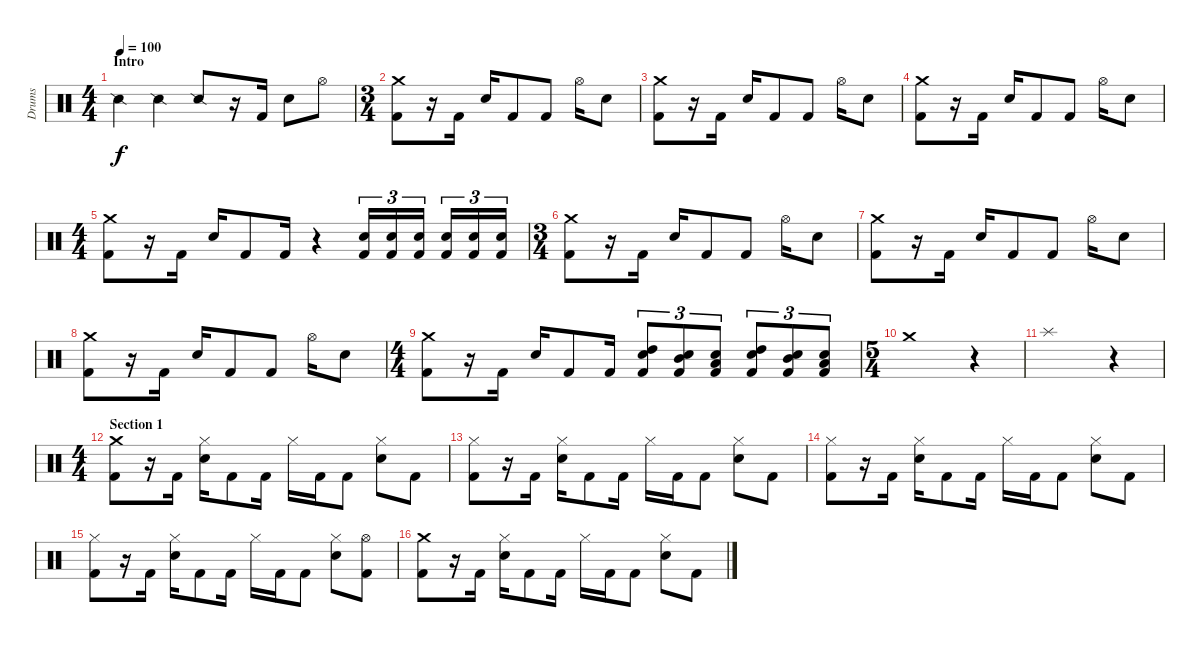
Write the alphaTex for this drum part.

\track ("Drums" "Drums") {instrument percussion}
\staff {score}
\articulation defaults
\ts (4 4)
\section ("" "Intro")
\tempo 100
\clef neutral
\ks c "Snare (side stick) 2".4{dy f} "Snare (side stick) 2".4 "Snare (side stick) 2".8
r.16 "Kick (hit) 2".16 "Snare (hit) 2".8 "Hi-Hat (open)".8 |
\ts (3 4)
("Crash medium (hit)" "Kick (hit) 2").8 r.16 "Kick (hit) 2".16 "Snare (hit) 2".16 "Kick (hit) 2".8 "Kick (hit) 2".8 "Hi-Hat (open)".16 "Snare (hit) 2".8 |
("Crash medium (hit)" "Kick (hit) 2").8 r.16 "Kick (hit) 2".16 "Snare (hit) 2".16 "Kick (hit) 2".8 "Kick (hit) 2".8 "Hi-Hat (open)".16 "Snare (hit) 2".8 |
("Crash medium (hit)" "Kick (hit) 2").8 r.16 "Kick (hit) 2".16 "Snare (hit) 2".16 "Kick (hit) 2".8 "Kick (hit) 2".8 "Hi-Hat (open)".16 "Snare (hit) 2".8 |
\ts (4 4)
("Crash medium (hit)" "Kick (hit) 2").8 r.16 "Kick (hit) 2".16 "Snare (hit) 2".16 "Kick (hit) 2".8 "Kick (hit) 2".16 r.4 ("Snare (hit) 2" "Kick (hit) 2").16{tu (3 2)} ("Snare (hit) 2" "Kick (hit) 2").16{tu (3 2)} ("Snare (hit) 2" "Kick (hit) 2").16{tu (3 2)} ("Snare (hit) 2" "Kick (hit) 2").16{tu (3 2)} ("Snare (hit) 2" "Kick (hit) 2").16{tu (3 2)} ("Snare (hit) 2" "Kick (hit) 2").16{tu (3 2)} |
\ts (3 4)
("Crash medium (hit)" "Kick (hit) 2").8 r.16 "Kick (hit) 2".16 "Snare (hit) 2".16 "Kick (hit) 2".8 "Kick (hit) 2".8 "Hi-Hat (open)".16 "Snare (hit) 2".8 |
("Crash medium (hit)" "Kick (hit) 2").8 r.16 "Kick (hit) 2".16 "Snare (hit) 2".16 "Kick (hit) 2".8 "Kick (hit) 2".8 "Hi-Hat (open)".16 "Snare (hit) 2".8 |
("Crash medium (hit)" "Kick (hit) 2").8 r.16 "Kick (hit) 2".16 "Snare (hit) 2".16 "Kick (hit) 2".8 "Kick (hit) 2".8 "Hi-Hat (open)".16 "Snare (hit) 2".8 |
\ts (4 4)
("Crash medium (hit)" "Kick (hit) 2").8 r.16 "Kick (hit) 2".16 "Snare (hit) 2".16 "Kick (hit) 2".8 "Kick (hit) 2".16 ("High Tom (hit)" "Snare (hit) 2" "Kick (hit) 2").8{tu (3 2)} ("Mid Tom (hit)" "Snare (hit) 2" "Kick (hit) 2").8{tu (3 2)} ("Snare (hit) 2" "Low Tom (hit)" "Kick (hit) 2").8{tu (3 2)} ("High Tom (hit)" "Snare (hit) 2" "Kick (hit) 2").8{tu (3 2)} ("Mid Tom (hit)" "Snare (hit) 2" "Kick (hit) 2").8{tu (3 2)} ("Snare (hit) 2" "Low Tom (hit)" "Kick (hit) 2").8{tu (3 2)} |
\ts (5 4)
"Crash medium (hit)".1 r.4 |
"Splash (hit)".1 r.4 |
\ts (4 4)
\section ("" "Section 1")
("Crash medium (hit)" "Kick (hit) 2").8 r.16 "Kick (hit) 2".16 ("Hi-Hat (closed)" "Snare (hit) 2").16 "Kick (hit) 2".8 "Kick (hit) 2".16 "Hi-Hat (closed)".16 "Kick (hit) 2".16 "Kick (hit) 2".8 ("Hi-Hat (closed)" "Snare (hit) 2").8 "Kick (hit) 2".8 |
("Hi-Hat (closed)" "Kick (hit) 2").8 r.16 "Kick (hit) 2".16 ("Hi-Hat (closed)" "Snare (hit) 2").16 "Kick (hit) 2".8 "Kick (hit) 2".16 "Hi-Hat (closed)".16 "Kick (hit) 2".16 "Kick (hit) 2".8 ("Hi-Hat (closed)" "Snare (hit) 2").8 "Kick (hit) 2".8 |
("Hi-Hat (closed)" "Kick (hit) 2").8 r.16 "Kick (hit) 2".16 ("Hi-Hat (closed)" "Snare (hit) 2").16 "Kick (hit) 2".8 "Kick (hit) 2".16 "Hi-Hat (closed)".16 "Kick (hit) 2".16 "Kick (hit) 2".8 ("Hi-Hat (closed)" "Snare (hit) 2").8 "Kick (hit) 2".8 |
("Hi-Hat (closed)" "Kick (hit) 2").8 r.16 "Kick (hit) 2".16 ("Hi-Hat (closed)" "Snare (hit) 2").16 "Kick (hit) 2".8 "Kick (hit) 2".16 "Hi-Hat (closed)".16 "Kick (hit) 2".16 "Kick (hit) 2".8 ("Hi-Hat (closed)" "Snare (hit) 2").8 ("Hi-Hat (open)" "Kick (hit) 2").8 |
("Crash medium (hit)" "Kick (hit) 2").8 r.16 "Kick (hit) 2".16 ("Hi-Hat (closed)" "Snare (hit) 2").16 "Kick (hit) 2".8 "Kick (hit) 2".16 "Hi-Hat (closed)".16 "Kick (hit) 2".16 "Kick (hit) 2".8 ("Hi-Hat (closed)" "Snare (hit) 2").8 "Kick (hit) 2".8
